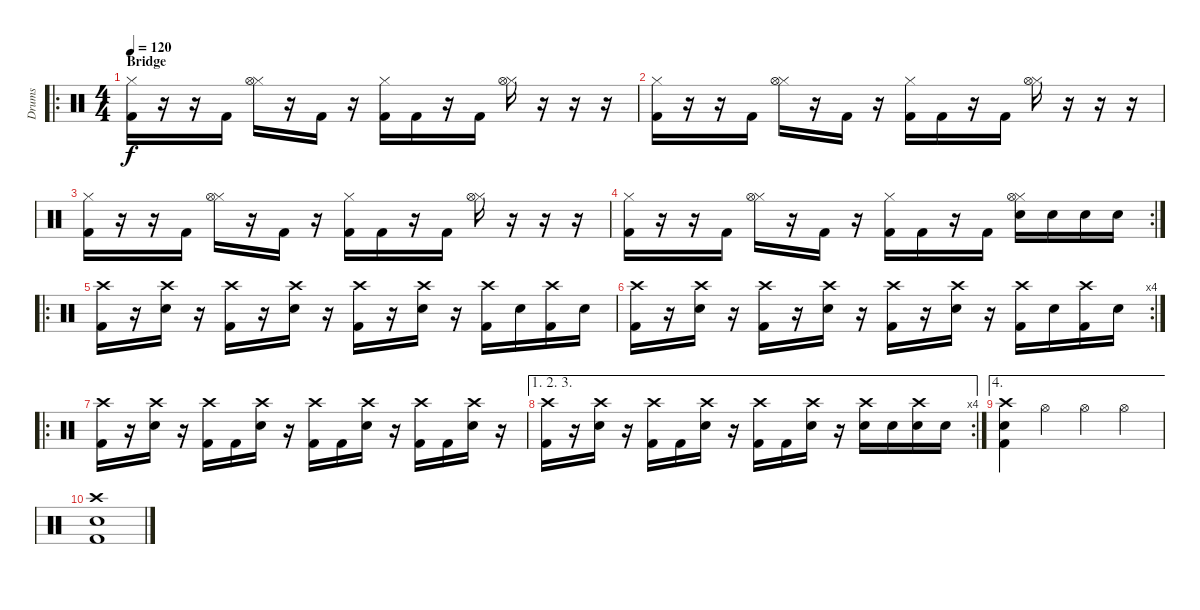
\track ("Drums" "Drums") {instrument percussion}
\staff {score}
\articulation defaults
\ro
\ts (4 4)
\section ("" "Bridge")
\tempo 120
\clef neutral
\ks c
("Hi-Hat (closed)" "Kick (hit) 2").16{dy f} r.16 r.16 "Kick (hit) 2".16 ("Hi-Hat (closed)" "Hi-Hat (open)").16 r.16 "Kick (hit) 2".16 r.16 ("Hi-Hat (closed)" "Kick (hit) 2").16 "Kick (hit) 2".16 r.16 "Kick (hit) 2".16 ("Hi-Hat (closed)" "Hi-Hat (open)").16 r.16 r.16 r.16 |
("Hi-Hat (closed)" "Kick (hit) 2").16 r.16 r.16 "Kick (hit) 2".16 ("Hi-Hat (closed)" "Hi-Hat (open)").16 r.16 "Kick (hit) 2".16 r.16 ("Hi-Hat (closed)" "Kick (hit) 2").16 "Kick (hit) 2".16 r.16 "Kick (hit) 2".16 ("Hi-Hat (closed)" "Hi-Hat (open)").16 r.16 r.16 r.16 |
("Hi-Hat (closed)" "Kick (hit) 2").16 r.16 r.16 "Kick (hit) 2".16 ("Hi-Hat (closed)" "Hi-Hat (open)").16 r.16 "Kick (hit) 2".16 r.16 ("Hi-Hat (closed)" "Kick (hit) 2").16 "Kick (hit) 2".16 r.16 "Kick (hit) 2".16 ("Hi-Hat (closed)" "Hi-Hat (open)").16 r.16 r.16 r.16 |
\rc 2
("Hi-Hat (closed)" "Kick (hit) 2").16 r.16 r.16 "Kick (hit) 2".16 ("Hi-Hat (closed)" "Hi-Hat (open)").16 r.16 "Kick (hit) 2".16 r.16 ("Hi-Hat (closed)" "Kick (hit) 2").16 "Kick (hit) 2".16 r.16 "Kick (hit) 2".16 ("Hi-Hat (closed)" "Hi-Hat (open)" "Snare (hit) 2").16 "Snare (hit) 2".16 "Snare (hit) 2".16 "Snare (hit) 2".16 |
\ro
("Crash high (hit)" "Kick (hit) 2").16 r.16 ("Crash high (hit)" "Snare (hit) 2").16 r.16 ("Crash high (hit)" "Kick (hit) 2").16 r.16 ("Crash high (hit)" "Snare (hit) 2").16 r.16 ("Crash high (hit)" "Kick (hit) 2").16 r.16 ("Crash high (hit)" "Snare (hit) 2").16 r.16 ("Crash high (hit)" "Kick (hit) 2").16 "Snare (hit) 2".16 ("Crash high (hit)" "Kick (hit) 2").16 "Snare (hit) 2".16 |
\rc 4
("Crash high (hit)" "Kick (hit) 2").16 r.16 ("Crash high (hit)" "Snare (hit) 2").16 r.16 ("Crash high (hit)" "Kick (hit) 2").16 r.16 ("Crash high (hit)" "Snare (hit) 2").16 r.16 ("Crash high (hit)" "Kick (hit) 2").16 r.16 ("Crash high (hit)" "Snare (hit) 2").16 r.16 ("Crash high (hit)" "Kick (hit) 2").16 "Snare (hit) 2".16 ("Crash high (hit)" "Kick (hit) 2").16 "Snare (hit) 2".16 |
\ro
("Crash high (hit)" "Kick (hit) 2").16 r.16 ("Crash high (hit)" "Snare (hit) 2").16 r.16 ("Crash high (hit)" "Kick (hit) 2").16 "Kick (hit) 2".16 ("Crash high (hit)" "Snare (hit) 2").16 r.16 ("Crash high (hit)" "Kick (hit) 2").16 "Kick (hit) 2".16 ("Crash high (hit)" "Snare (hit) 2").16 r.16 ("Crash high (hit)" "Kick (hit) 2").16 "Kick (hit) 2".16 ("Crash high (hit)" "Snare (hit) 2").16 r.16 |
\ae (1 2 3)
\rc 4
("Crash high (hit)" "Kick (hit) 2").16 r.16 ("Crash high (hit)" "Snare (hit) 2").16 r.16 ("Crash high (hit)" "Kick (hit) 2").16 "Kick (hit) 2".16 ("Crash high (hit)" "Snare (hit) 2").16 r.16 ("Crash high (hit)" "Kick (hit) 2").16 "Kick (hit) 2".16 ("Crash high (hit)" "Snare (hit) 2").16 r.16 ("Crash high (hit)" "Snare (hit) 2").16 "Snare (hit) 2".16 ("Crash high (hit)" "Snare (hit) 2").16 "Snare (hit) 2".16 |
\ae 4
("Snare (hit) 2" "Kick (hit) 2" "Crash high (hit)").4 "Hi-Hat (open)".4 "Hi-Hat (open)".4 "Hi-Hat (open)".4 |
("Snare (hit) 2" "Kick (hit) 2" "Crash high (hit)").1
